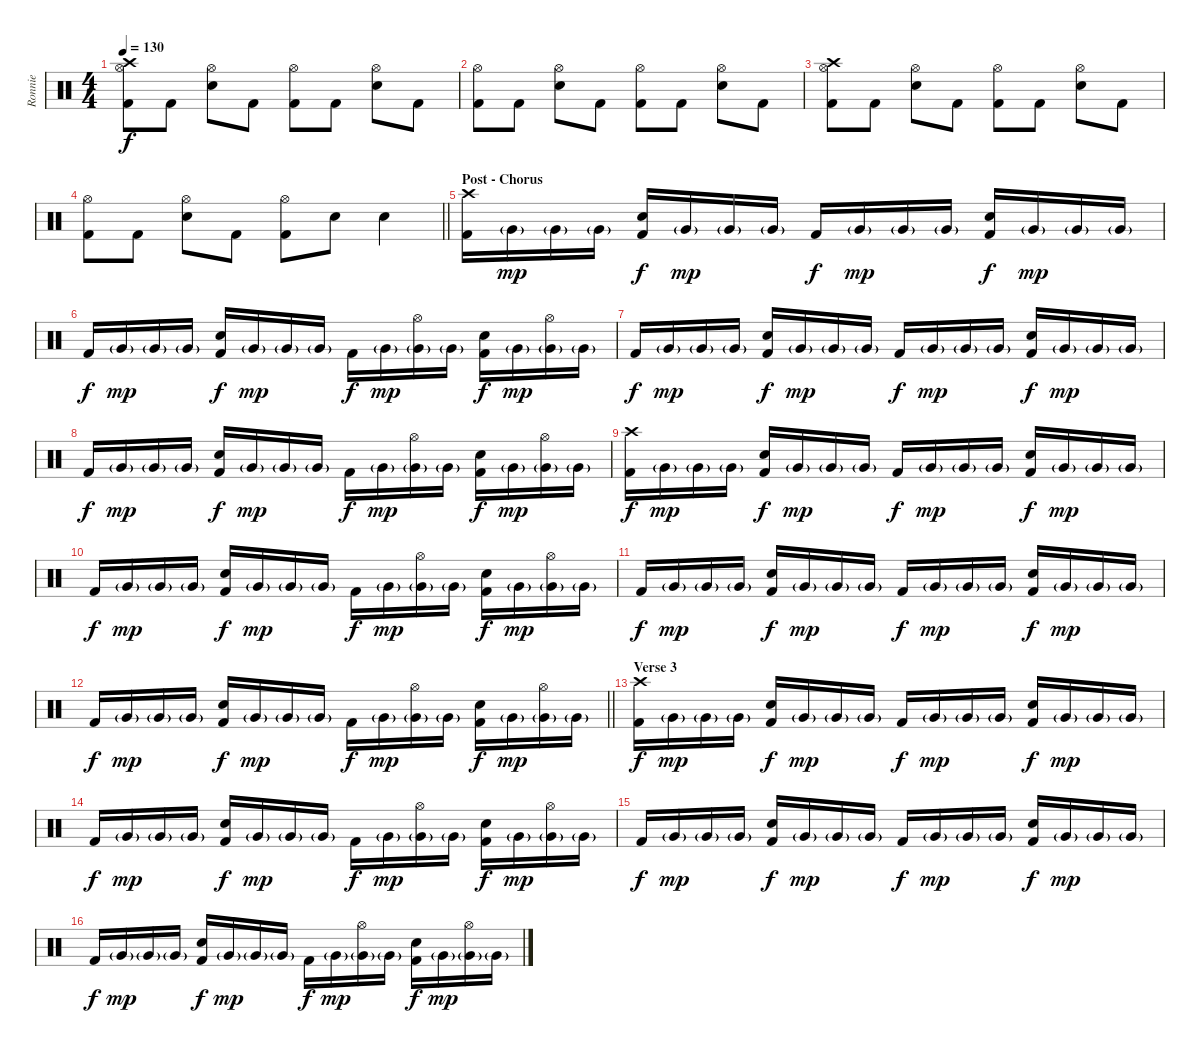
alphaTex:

\track ("Ronnie" "Ronnie") {instrument percussion}
\staff {score}
\articulation defaults
\ts (4 4)
\tempo 130
\clef neutral
\ks c
("Crash high (hit)" "Kick (hit) 2" "Hi-Hat (open)").8{dy f} "Kick (hit) 2".8 ("Electric Snare (hit)" "Hi-Hat (open)").8 "Kick (hit) 2".8 ("Kick (hit) 2" "Hi-Hat (open)").8 "Kick (hit) 2".8 ("Electric Snare (hit)" "Hi-Hat (open)").8 "Kick (hit) 2".8 |
("Kick (hit) 2" "Hi-Hat (open)").8 "Kick (hit) 2".8 ("Electric Snare (hit)" "Hi-Hat (open)").8 "Kick (hit) 2".8 ("Kick (hit) 2" "Hi-Hat (open)").8 "Kick (hit) 2".8 ("Electric Snare (hit)" "Hi-Hat (open)").8 "Kick (hit) 2".8 |
("Crash high (hit)" "Kick (hit) 2" "Hi-Hat (open)").8 "Kick (hit) 2".8 ("Electric Snare (hit)" "Hi-Hat (open)").8 "Kick (hit) 2".8 ("Kick (hit) 2" "Hi-Hat (open)").8 "Kick (hit) 2".8 ("Electric Snare (hit)" "Hi-Hat (open)").8 "Kick (hit) 2".8 |
\barLineRight lightlight
("Kick (hit) 2" "Hi-Hat (open)").8 "Kick (hit) 2".8 ("Electric Snare (hit)" "Hi-Hat (open)").8 "Kick (hit) 2".8 ("Kick (hit) 2" "Hi-Hat (open)").8 "Electric Snare (hit)".8 "Electric Snare (hit)".4 |
\section ("" "Post - Chorus")
("Kick (hit) 2" "Crash high (hit)").16 "Very Low Tom (hit)"{g}.16{dy mp} "Very Low Tom (hit)"{g}.16 "Very Low Tom (hit)"{g}.16 ("Electric Snare (hit)" "Kick (hit) 2").16{dy f} "Very Low Tom (hit)"{g}.16{dy mp} "Very Low Tom (hit)"{g}.16 "Very Low Tom (hit)"{g}.16 "Kick (hit) 2".16{dy f} "Very Low Tom (hit)"{g}.16{dy mp} "Very Low Tom (hit)"{g}.16 "Very Low Tom (hit)"{g}.16 ("Electric Snare (hit)" "Kick (hit) 2").16{dy f} "Very Low Tom (hit)"{g}.16{dy mp} "Very Low Tom (hit)"{g}.16 "Very Low Tom (hit)"{g}.16 |
"Kick (hit) 2".16{dy f} "Very Low Tom (hit)"{g}.16{dy mp} "Very Low Tom (hit)"{g}.16 "Very Low Tom (hit)"{g}.16 ("Electric Snare (hit)" "Kick (hit) 2").16{dy f} "Very Low Tom (hit)"{g}.16{dy mp} "Very Low Tom (hit)"{g}.16 "Very Low Tom (hit)"{g}.16 "Kick (hit) 2".16{dy f} "Very Low Tom (hit)"{g}.16{dy mp} ("Very Low Tom (hit)"{g} "Hi-Hat (open)").16 "Very Low Tom (hit)"{g}.16 ("Electric Snare (hit)" "Kick (hit) 2").16{dy f} "Very Low Tom (hit)"{g}.16{dy mp} ("Very Low Tom (hit)"{g} "Hi-Hat (open)").16 "Very Low Tom (hit)"{g}.16 |
"Kick (hit) 2".16{dy f} "Very Low Tom (hit)"{g}.16{dy mp} "Very Low Tom (hit)"{g}.16 "Very Low Tom (hit)"{g}.16 ("Electric Snare (hit)" "Kick (hit) 2").16{dy f} "Very Low Tom (hit)"{g}.16{dy mp} "Very Low Tom (hit)"{g}.16 "Very Low Tom (hit)"{g}.16 "Kick (hit) 2".16{dy f} "Very Low Tom (hit)"{g}.16{dy mp} "Very Low Tom (hit)"{g}.16 "Very Low Tom (hit)"{g}.16 ("Electric Snare (hit)" "Kick (hit) 2").16{dy f} "Very Low Tom (hit)"{g}.16{dy mp} "Very Low Tom (hit)"{g}.16 "Very Low Tom (hit)"{g}.16 |
"Kick (hit) 2".16{dy f} "Very Low Tom (hit)"{g}.16{dy mp} "Very Low Tom (hit)"{g}.16 "Very Low Tom (hit)"{g}.16 ("Electric Snare (hit)" "Kick (hit) 2").16{dy f} "Very Low Tom (hit)"{g}.16{dy mp} "Very Low Tom (hit)"{g}.16 "Very Low Tom (hit)"{g}.16 "Kick (hit) 2".16{dy f} "Very Low Tom (hit)"{g}.16{dy mp} ("Very Low Tom (hit)"{g} "Hi-Hat (open)").16 "Very Low Tom (hit)"{g}.16 ("Electric Snare (hit)" "Kick (hit) 2").16{dy f} "Very Low Tom (hit)"{g}.16{dy mp} ("Very Low Tom (hit)"{g} "Hi-Hat (open)").16 "Very Low Tom (hit)"{g}.16 |
("Kick (hit) 2" "Crash high (hit)").16{dy f} "Very Low Tom (hit)"{g}.16{dy mp} "Very Low Tom (hit)"{g}.16 "Very Low Tom (hit)"{g}.16 ("Electric Snare (hit)" "Kick (hit) 2").16{dy f} "Very Low Tom (hit)"{g}.16{dy mp} "Very Low Tom (hit)"{g}.16 "Very Low Tom (hit)"{g}.16 "Kick (hit) 2".16{dy f} "Very Low Tom (hit)"{g}.16{dy mp} "Very Low Tom (hit)"{g}.16 "Very Low Tom (hit)"{g}.16 ("Electric Snare (hit)" "Kick (hit) 2").16{dy f} "Very Low Tom (hit)"{g}.16{dy mp} "Very Low Tom (hit)"{g}.16 "Very Low Tom (hit)"{g}.16 |
"Kick (hit) 2".16{dy f} "Very Low Tom (hit)"{g}.16{dy mp} "Very Low Tom (hit)"{g}.16 "Very Low Tom (hit)"{g}.16 ("Electric Snare (hit)" "Kick (hit) 2").16{dy f} "Very Low Tom (hit)"{g}.16{dy mp} "Very Low Tom (hit)"{g}.16 "Very Low Tom (hit)"{g}.16 "Kick (hit) 2".16{dy f} "Very Low Tom (hit)"{g}.16{dy mp} ("Very Low Tom (hit)"{g} "Hi-Hat (open)").16 "Very Low Tom (hit)"{g}.16 ("Electric Snare (hit)" "Kick (hit) 2").16{dy f} "Very Low Tom (hit)"{g}.16{dy mp} ("Very Low Tom (hit)"{g} "Hi-Hat (open)").16 "Very Low Tom (hit)"{g}.16 |
"Kick (hit) 2".16{dy f} "Very Low Tom (hit)"{g}.16{dy mp} "Very Low Tom (hit)"{g}.16 "Very Low Tom (hit)"{g}.16 ("Electric Snare (hit)" "Kick (hit) 2").16{dy f} "Very Low Tom (hit)"{g}.16{dy mp} "Very Low Tom (hit)"{g}.16 "Very Low Tom (hit)"{g}.16 "Kick (hit) 2".16{dy f} "Very Low Tom (hit)"{g}.16{dy mp} "Very Low Tom (hit)"{g}.16 "Very Low Tom (hit)"{g}.16 ("Electric Snare (hit)" "Kick (hit) 2").16{dy f} "Very Low Tom (hit)"{g}.16{dy mp} "Very Low Tom (hit)"{g}.16 "Very Low Tom (hit)"{g}.16 |
\barLineRight lightlight "Kick (hit) 2".16{dy f} "Very Low Tom (hit)"{g}.16{dy mp} "Very Low Tom (hit)"{g}.16 "Very Low Tom (hit)"{g}.16
("Electric Snare (hit)" "Kick (hit) 2").16{dy f} "Very Low Tom (hit)"{g}.16{dy mp} "Very Low Tom (hit)"{g}.16 "Very Low Tom (hit)"{g}.16 "Kick (hit) 2".16{dy f} "Very Low Tom (hit)"{g}.16{dy mp} ("Very Low Tom (hit)"{g} "Hi-Hat (open)").16 "Very Low Tom (hit)"{g}.16 ("Electric Snare (hit)" "Kick (hit) 2").16{dy f} "Very Low Tom (hit)"{g}.16{dy mp} ("Very Low Tom (hit)"{g} "Hi-Hat (open)").16 "Very Low Tom (hit)"{g}.16 |
\section ("" "Verse 3")
("Kick (hit) 2" "Crash high (hit)").16{dy f} "Very Low Tom (hit)"{g}.16{dy mp} "Very Low Tom (hit)"{g}.16 "Very Low Tom (hit)"{g}.16 ("Electric Snare (hit)" "Kick (hit) 2").16{dy f} "Very Low Tom (hit)"{g}.16{dy mp} "Very Low Tom (hit)"{g}.16 "Very Low Tom (hit)"{g}.16 "Kick (hit) 2".16{dy f} "Very Low Tom (hit)"{g}.16{dy mp} "Very Low Tom (hit)"{g}.16 "Very Low Tom (hit)"{g}.16 ("Electric Snare (hit)" "Kick (hit) 2").16{dy f} "Very Low Tom (hit)"{g}.16{dy mp} "Very Low Tom (hit)"{g}.16 "Very Low Tom (hit)"{g}.16 |
"Kick (hit) 2".16{dy f} "Very Low Tom (hit)"{g}.16{dy mp} "Very Low Tom (hit)"{g}.16 "Very Low Tom (hit)"{g}.16 ("Electric Snare (hit)" "Kick (hit) 2").16{dy f} "Very Low Tom (hit)"{g}.16{dy mp} "Very Low Tom (hit)"{g}.16 "Very Low Tom (hit)"{g}.16 "Kick (hit) 2".16{dy f} "Very Low Tom (hit)"{g}.16{dy mp} ("Very Low Tom (hit)"{g} "Hi-Hat (open)").16 "Very Low Tom (hit)"{g}.16 ("Electric Snare (hit)" "Kick (hit) 2").16{dy f} "Very Low Tom (hit)"{g}.16{dy mp} ("Very Low Tom (hit)"{g} "Hi-Hat (open)").16 "Very Low Tom (hit)"{g}.16 |
"Kick (hit) 2".16{dy f} "Very Low Tom (hit)"{g}.16{dy mp} "Very Low Tom (hit)"{g}.16 "Very Low Tom (hit)"{g}.16 ("Electric Snare (hit)" "Kick (hit) 2").16{dy f} "Very Low Tom (hit)"{g}.16{dy mp} "Very Low Tom (hit)"{g}.16 "Very Low Tom (hit)"{g}.16 "Kick (hit) 2".16{dy f} "Very Low Tom (hit)"{g}.16{dy mp} "Very Low Tom (hit)"{g}.16 "Very Low Tom (hit)"{g}.16 ("Electric Snare (hit)" "Kick (hit) 2").16{dy f} "Very Low Tom (hit)"{g}.16{dy mp} "Very Low Tom (hit)"{g}.16 "Very Low Tom (hit)"{g}.16 |
"Kick (hit) 2".16{dy f} "Very Low Tom (hit)"{g}.16{dy mp} "Very Low Tom (hit)"{g}.16 "Very Low Tom (hit)"{g}.16 ("Electric Snare (hit)" "Kick (hit) 2").16{dy f} "Very Low Tom (hit)"{g}.16{dy mp} "Very Low Tom (hit)"{g}.16 "Very Low Tom (hit)"{g}.16 "Kick (hit) 2".16{dy f} "Very Low Tom (hit)"{g}.16{dy mp} ("Very Low Tom (hit)"{g} "Hi-Hat (open)").16 "Very Low Tom (hit)"{g}.16 ("Electric Snare (hit)" "Kick (hit) 2").16{dy f} "Very Low Tom (hit)"{g}.16{dy mp} ("Very Low Tom (hit)"{g} "Hi-Hat (open)").16 "Very Low Tom (hit)"{g}.16
